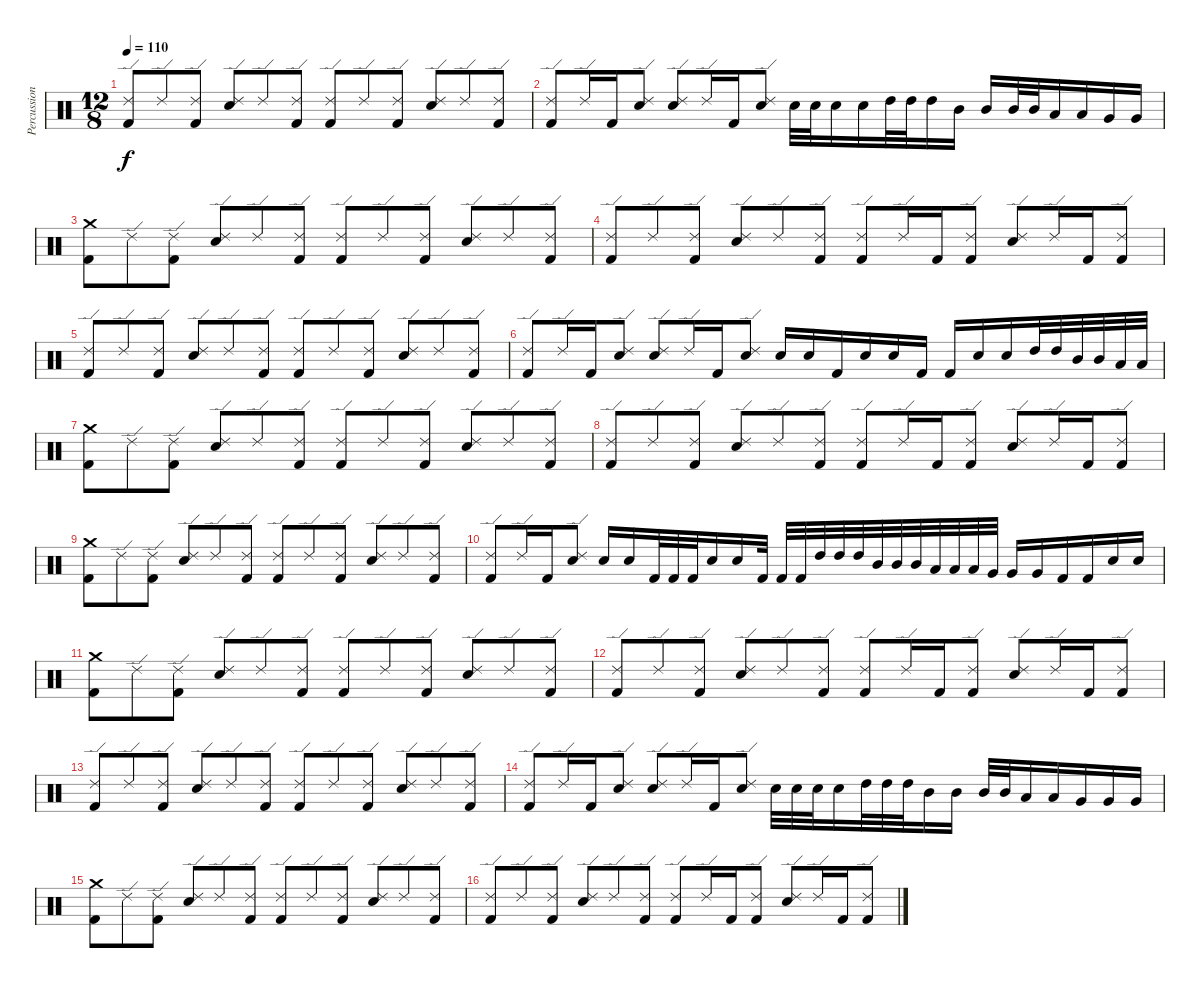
\track ("Percussions" "Percussion") {instrument percussion}
\staff {score}
\articulation defaults
\ts (12 8)
\tempo 110
\clef neutral
\ks c
("Ride (edge) 2" "Kick (hit) 2").8{dy f} "Ride (edge) 2".8 ("Ride (edge) 2" "Kick (hit) 2").8 ("Ride (edge) 2" "Electric Snare (hit)").8 "Ride (edge) 2".8 ("Ride (edge) 2" "Kick (hit) 2").8 ("Ride (edge) 2" "Kick (hit) 2").8 "Ride (edge) 2".8 ("Ride (edge) 2" "Kick (hit) 2").8 ("Ride (edge) 2" "Electric Snare (hit)").8 "Ride (edge) 2".8 ("Ride (edge) 2" "Kick (hit) 2").8 |
("Ride (edge) 2" "Kick (hit) 2").8 "Ride (edge) 2".16 "Kick (hit) 2".16 ("Ride (edge) 2" "Electric Snare (hit)").8 ("Ride (edge) 2" "Electric Snare (hit)").8 "Ride (edge) 2".16 "Kick (hit) 2".16 ("Ride (edge) 2" "Electric Snare (hit)").8 "Electric Snare (hit)".32 "Electric Snare (hit)".32 "Electric Snare (hit)".16 "Electric Snare (hit)".16 "High Tom (hit)".32 "High Tom (hit)".32 "High Tom (hit)".16 "Mid Tom (hit)".16 "Mid Tom (hit)".16 "Mid Tom (hit)".32 "Mid Tom (hit)".32 "Low Tom (hit)".16 "Low Tom (hit)".16 "Very Low Tom (hit)".16 "Very Low Tom (hit)".16 |
("Crash medium (hit)" "Kick (hit) 2").8 "Ride (edge) 2".8 ("Ride (edge) 2" "Kick (hit) 2").8 ("Ride (edge) 2" "Electric Snare (hit)").8 "Ride (edge) 2".8 ("Ride (edge) 2" "Kick (hit) 2").8 ("Ride (edge) 2" "Kick (hit) 2").8 "Ride (edge) 2".8 ("Ride (edge) 2" "Kick (hit) 2").8 ("Ride (edge) 2" "Electric Snare (hit)").8 "Ride (edge) 2".8 ("Ride (edge) 2" "Kick (hit) 2").8 |
("Ride (edge) 2" "Kick (hit) 2").8 "Ride (edge) 2".8 ("Ride (edge) 2" "Kick (hit) 2").8 ("Ride (edge) 2" "Electric Snare (hit)").8 "Ride (edge) 2".8 ("Ride (edge) 2" "Kick (hit) 2").8 ("Ride (edge) 2" "Kick (hit) 2").8 "Ride (edge) 2".16 "Kick (hit) 2".16 ("Ride (edge) 2" "Kick (hit) 2").8 ("Ride (edge) 2" "Electric Snare (hit)").8 "Ride (edge) 2".16 "Kick (hit) 2".16 ("Ride (edge) 2" "Kick (hit) 2").8 |
("Ride (edge) 2" "Kick (hit) 2").8 "Ride (edge) 2".8 ("Ride (edge) 2" "Kick (hit) 2").8 ("Ride (edge) 2" "Electric Snare (hit)").8 "Ride (edge) 2".8 ("Ride (edge) 2" "Kick (hit) 2").8 ("Ride (edge) 2" "Kick (hit) 2").8 "Ride (edge) 2".8 ("Ride (edge) 2" "Kick (hit) 2").8 ("Ride (edge) 2" "Electric Snare (hit)").8 "Ride (edge) 2".8 ("Ride (edge) 2" "Kick (hit) 2").8 |
("Ride (edge) 2" "Kick (hit) 2").8 "Ride (edge) 2".16 "Kick (hit) 2".16 ("Ride (edge) 2" "Electric Snare (hit)").8 ("Ride (edge) 2" "Electric Snare (hit)").8 "Ride (edge) 2".16 "Kick (hit) 2".16 ("Ride (edge) 2" "Electric Snare (hit)").8 "Electric Snare (hit)".16 "Electric Snare (hit)".16 "Kick (hit) 2".16 "Electric Snare (hit)".16 "Electric Snare (hit)".16 "Kick (hit) 2".16 "Kick (hit) 2".16 "Electric Snare (hit)".16 "Electric Snare (hit)".16 "High Tom (hit)".32 "High Tom (hit)".32 "Mid Tom (hit)".32 "Mid Tom (hit)".32 "Low Tom (hit)".32 "Low Tom (hit)".32 |
("Crash medium (hit)" "Kick (hit) 2").8 "Ride (edge) 2".8 ("Ride (edge) 2" "Kick (hit) 2").8 ("Ride (edge) 2" "Electric Snare (hit)").8 "Ride (edge) 2".8 ("Ride (edge) 2" "Kick (hit) 2").8 ("Ride (edge) 2" "Kick (hit) 2").8 "Ride (edge) 2".8 ("Ride (edge) 2" "Kick (hit) 2").8 ("Ride (edge) 2" "Electric Snare (hit)").8 "Ride (edge) 2".8 ("Ride (edge) 2" "Kick (hit) 2").8 |
("Ride (edge) 2" "Kick (hit) 2").8 "Ride (edge) 2".8 ("Ride (edge) 2" "Kick (hit) 2").8 ("Ride (edge) 2" "Electric Snare (hit)").8 "Ride (edge) 2".8 ("Ride (edge) 2" "Kick (hit) 2").8 ("Ride (edge) 2" "Kick (hit) 2").8 "Ride (edge) 2".16 "Kick (hit) 2".16 ("Ride (edge) 2" "Kick (hit) 2").8 ("Ride (edge) 2" "Electric Snare (hit)").8 "Ride (edge) 2".16 "Kick (hit) 2".16 ("Ride (edge) 2" "Kick (hit) 2").8 |
("Crash medium (hit)" "Kick (hit) 2").8 "Ride (edge) 2".8 ("Ride (edge) 2" "Kick (hit) 2").8 ("Ride (edge) 2" "Electric Snare (hit)").8 "Ride (edge) 2".8 ("Ride (edge) 2" "Kick (hit) 2").8 ("Ride (edge) 2" "Kick (hit) 2").8 "Ride (edge) 2".8 ("Ride (edge) 2" "Kick (hit) 2").8 ("Ride (edge) 2" "Electric Snare (hit)").8 "Ride (edge) 2".8 ("Ride (edge) 2" "Kick (hit) 2").8 |
("Ride (edge) 2" "Kick (hit) 2").8 "Ride (edge) 2".16 "Kick (hit) 2".16 ("Ride (edge) 2" "Electric Snare (hit)").8 "Electric Snare (hit)".16 "Electric Snare (hit)".16 "Kick (hit) 2".32 "Kick (hit) 2".32 "Kick (hit) 2".32 "Electric Snare (hit)".16 "Electric Snare (hit)".16 "Kick (hit) 2".32 "Kick (hit) 2".32 "Kick (hit) 2".32 "High Tom (hit)".32 "High Tom (hit)".32 "High Tom (hit)".32 "Mid Tom (hit)".32 "Mid Tom (hit)".32 "Mid Tom (hit)".32 "Low Tom (hit)".32 "Low Tom (hit)".32 "Low Tom (hit)".32 "Very Low Tom (hit)".32 "Very Low Tom (hit)".16 "Very Low Tom (hit)".16 "Kick (hit) 2".16 "Kick (hit) 2".16 "Electric Snare (hit)".16 "Electric Snare (hit)".16 |
("Crash medium (hit)" "Kick (hit) 2").8 "Ride (edge) 2".8 ("Ride (edge) 2" "Kick (hit) 2").8 ("Ride (edge) 2" "Electric Snare (hit)").8 "Ride (edge) 2".8 ("Ride (edge) 2" "Kick (hit) 2").8 ("Ride (edge) 2" "Kick (hit) 2").8 "Ride (edge) 2".8 ("Ride (edge) 2" "Kick (hit) 2").8 ("Ride (edge) 2" "Electric Snare (hit)").8 "Ride (edge) 2".8 ("Ride (edge) 2" "Kick (hit) 2").8 |
("Ride (edge) 2" "Kick (hit) 2").8 "Ride (edge) 2".8 ("Ride (edge) 2" "Kick (hit) 2").8 ("Ride (edge) 2" "Electric Snare (hit)").8 "Ride (edge) 2".8 ("Ride (edge) 2" "Kick (hit) 2").8 ("Ride (edge) 2" "Kick (hit) 2").8 "Ride (edge) 2".16 "Kick (hit) 2".16 ("Ride (edge) 2" "Kick (hit) 2").8 ("Ride (edge) 2" "Electric Snare (hit)").8 "Ride (edge) 2".16 "Kick (hit) 2".16 ("Ride (edge) 2" "Kick (hit) 2").8 |
("Ride (edge) 2" "Kick (hit) 2").8 "Ride (edge) 2".8 ("Ride (edge) 2" "Kick (hit) 2").8 ("Ride (edge) 2" "Electric Snare (hit)").8 "Ride (edge) 2".8 ("Ride (edge) 2" "Kick (hit) 2").8 ("Ride (edge) 2" "Kick (hit) 2").8 "Ride (edge) 2".8 ("Ride (edge) 2" "Kick (hit) 2").8 ("Ride (edge) 2" "Electric Snare (hit)").8 "Ride (edge) 2".8 ("Ride (edge) 2" "Kick (hit) 2").8 |
("Ride (edge) 2" "Kick (hit) 2").8 "Ride (edge) 2".16 "Kick (hit) 2".16 ("Ride (edge) 2" "Electric Snare (hit)").8 ("Ride (edge) 2" "Electric Snare (hit)").8 "Ride (edge) 2".16 "Kick (hit) 2".16 ("Ride (edge) 2" "Electric Snare (hit)").8 "Electric Snare (hit)".32 "Electric Snare (hit)".32 "Electric Snare (hit)".32 "Electric Snare (hit)".16 "High Tom (hit)".32 "High Tom (hit)".32 "High Tom (hit)".32 "Mid Tom (hit)".16 "Mid Tom (hit)".16 "Mid Tom (hit)".32 "Mid Tom (hit)".32 "Low Tom (hit)".16 "Low Tom (hit)".16 "Very Low Tom (hit)".16 "Very Low Tom (hit)".16 "Very Low Tom (hit)".16 |
("Crash medium (hit)" "Kick (hit) 2").8 "Ride (edge) 2".8 ("Ride (edge) 2" "Kick (hit) 2").8 ("Ride (edge) 2" "Electric Snare (hit)").8 "Ride (edge) 2".8 ("Ride (edge) 2" "Kick (hit) 2").8 ("Ride (edge) 2" "Kick (hit) 2").8 "Ride (edge) 2".8 ("Ride (edge) 2" "Kick (hit) 2").8 ("Ride (edge) 2" "Electric Snare (hit)").8 "Ride (edge) 2".8 ("Ride (edge) 2" "Kick (hit) 2").8 |
("Ride (edge) 2" "Kick (hit) 2").8 "Ride (edge) 2".8 ("Ride (edge) 2" "Kick (hit) 2").8 ("Ride (edge) 2" "Electric Snare (hit)").8 "Ride (edge) 2".8 ("Ride (edge) 2" "Kick (hit) 2").8 ("Ride (edge) 2" "Kick (hit) 2").8 "Ride (edge) 2".16 "Kick (hit) 2".16 ("Ride (edge) 2" "Kick (hit) 2").8 ("Ride (edge) 2" "Electric Snare (hit)").8 "Ride (edge) 2".16 "Kick (hit) 2".16 ("Ride (edge) 2" "Kick (hit) 2").8
